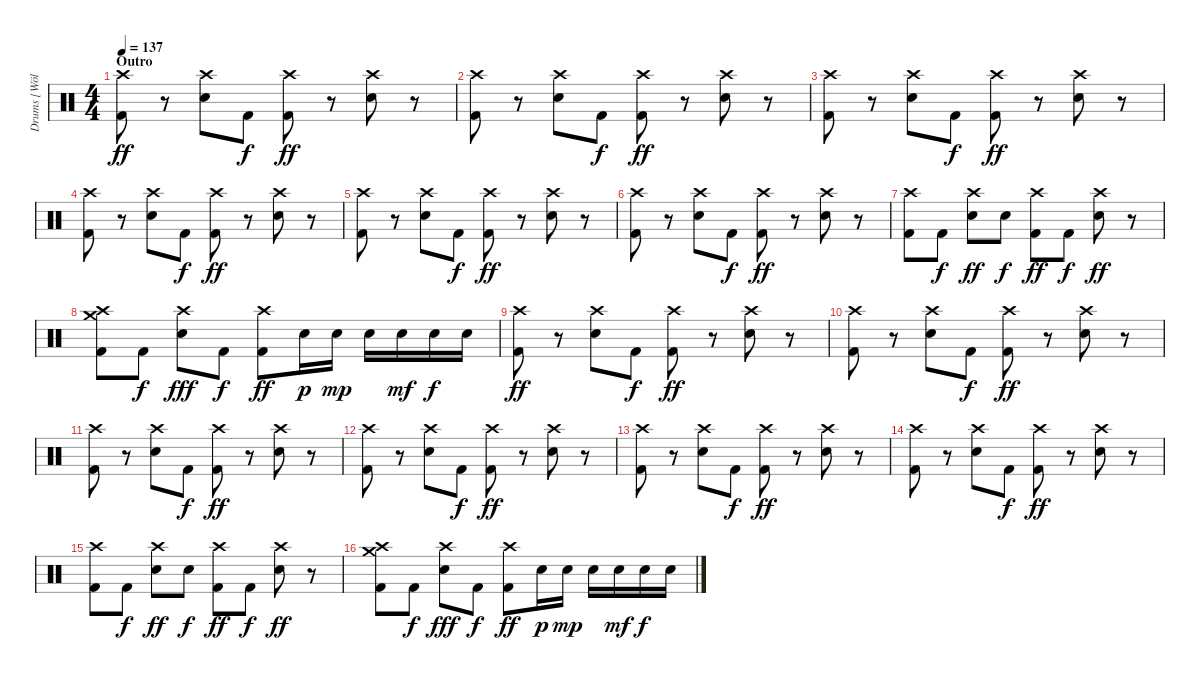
\track ("Drums [Wölli]" "Drums [Wöl") {instrument percussion}
\staff {score}
\articulation defaults
\ts (4 4)
\section ("" "Outro")
\tempo 137
\clef neutral
\ks c
("Crash high (hit)" "Kick (hit) 2").8{dy ff} r.8 ("Crash high (hit)" "Snare (hit) 2").8 "Kick (hit) 2".8{dy f} ("Crash high (hit)" "Kick (hit) 2").8{dy ff} r.8 ("Crash high (hit)" "Snare (hit) 2").8 r.8 |
("Crash high (hit)" "Kick (hit) 2").8 r.8 ("Crash high (hit)" "Snare (hit) 2").8 "Kick (hit) 2".8{dy f} ("Crash high (hit)" "Kick (hit) 2").8{dy ff} r.8 ("Crash high (hit)" "Snare (hit) 2").8 r.8 |
("Crash high (hit)" "Kick (hit) 2").8 r.8 ("Crash high (hit)" "Snare (hit) 2").8 "Kick (hit) 2".8{dy f} ("Crash high (hit)" "Kick (hit) 2").8{dy ff} r.8 ("Crash high (hit)" "Snare (hit) 2").8 r.8 |
("Crash high (hit)" "Kick (hit) 2").8 r.8 ("Crash high (hit)" "Snare (hit) 2").8 "Kick (hit) 2".8{dy f} ("Crash high (hit)" "Kick (hit) 2").8{dy ff} r.8 ("Crash high (hit)" "Snare (hit) 2").8 r.8 |
("Crash high (hit)" "Kick (hit) 2").8 r.8 ("Crash high (hit)" "Snare (hit) 2").8 "Kick (hit) 2".8{dy f} ("Crash high (hit)" "Kick (hit) 2").8{dy ff} r.8 ("Crash high (hit)" "Snare (hit) 2").8 r.8 |
("Crash high (hit)" "Kick (hit) 2").8 r.8 ("Crash high (hit)" "Snare (hit) 2").8 "Kick (hit) 2".8{dy f} ("Crash high (hit)" "Kick (hit) 2").8{dy ff} r.8 ("Crash high (hit)" "Snare (hit) 2").8 r.8 |
("Crash high (hit)" "Kick (hit) 2").8 "Kick (hit) 2".8{dy f} ("Crash high (hit)" "Snare (hit) 2").8{dy ff} "Snare (hit) 2".8{dy f} ("Crash high (hit)" "Kick (hit) 2").8{dy ff} "Kick (hit) 2".8{dy f} ("Crash high (hit)" "Snare (hit) 2").8{dy ff} r.8 |
("Crash high (hit)" "Kick (hit) 2" "Crash medium (hit)").8 "Kick (hit) 2".8{dy f} ("Crash high (hit)" "Snare (hit) 2").8{dy fff} "Kick (hit) 2".8{dy f} ("Crash high (hit)" "Kick (hit) 2").8{dy ff} "Snare (hit) 2".16{dy p} "Snare (hit) 2".16{dy mp} "Snare (hit) 2".16 "Snare (hit) 2".16{dy mf} "Snare (hit) 2".16{dy f} "Snare (hit) 2".16 |
("Crash high (hit)" "Kick (hit) 2").8{dy ff} r.8 ("Crash high (hit)" "Snare (hit) 2").8 "Kick (hit) 2".8{dy f} ("Crash high (hit)" "Kick (hit) 2").8{dy ff} r.8 ("Crash high (hit)" "Snare (hit) 2").8 r.8 |
("Crash high (hit)" "Kick (hit) 2").8 r.8 ("Crash high (hit)" "Snare (hit) 2").8 "Kick (hit) 2".8{dy f} ("Crash high (hit)" "Kick (hit) 2").8{dy ff} r.8 ("Crash high (hit)" "Snare (hit) 2").8 r.8 |
("Crash high (hit)" "Kick (hit) 2").8 r.8 ("Crash high (hit)" "Snare (hit) 2").8 "Kick (hit) 2".8{dy f} ("Crash high (hit)" "Kick (hit) 2").8{dy ff} r.8 ("Crash high (hit)" "Snare (hit) 2").8 r.8 |
("Crash high (hit)" "Kick (hit) 2").8 r.8 ("Crash high (hit)" "Snare (hit) 2").8 "Kick (hit) 2".8{dy f} ("Crash high (hit)" "Kick (hit) 2").8{dy ff} r.8 ("Crash high (hit)" "Snare (hit) 2").8 r.8 |
("Crash high (hit)" "Kick (hit) 2").8 r.8 ("Crash high (hit)" "Snare (hit) 2").8 "Kick (hit) 2".8{dy f} ("Crash high (hit)" "Kick (hit) 2").8{dy ff} r.8 ("Crash high (hit)" "Snare (hit) 2").8 r.8 |
("Crash high (hit)" "Kick (hit) 2").8 r.8 ("Crash high (hit)" "Snare (hit) 2").8 "Kick (hit) 2".8{dy f} ("Crash high (hit)" "Kick (hit) 2").8{dy ff} r.8 ("Crash high (hit)" "Snare (hit) 2").8 r.8 |
("Crash high (hit)" "Kick (hit) 2").8 "Kick (hit) 2".8{dy f} ("Crash high (hit)" "Snare (hit) 2").8{dy ff} "Snare (hit) 2".8{dy f} ("Crash high (hit)" "Kick (hit) 2").8{dy ff} "Kick (hit) 2".8{dy f} ("Crash high (hit)" "Snare (hit) 2").8{dy ff} r.8 |
("Crash high (hit)" "Kick (hit) 2" "Crash medium (hit)").8 "Kick (hit) 2".8{dy f} ("Crash high (hit)" "Snare (hit) 2").8{dy fff} "Kick (hit) 2".8{dy f} ("Crash high (hit)" "Kick (hit) 2").8{dy ff} "Snare (hit) 2".16{dy p} "Snare (hit) 2".16{dy mp} "Snare (hit) 2".16 "Snare (hit) 2".16{dy mf} "Snare (hit) 2".16{dy f} "Snare (hit) 2".16
